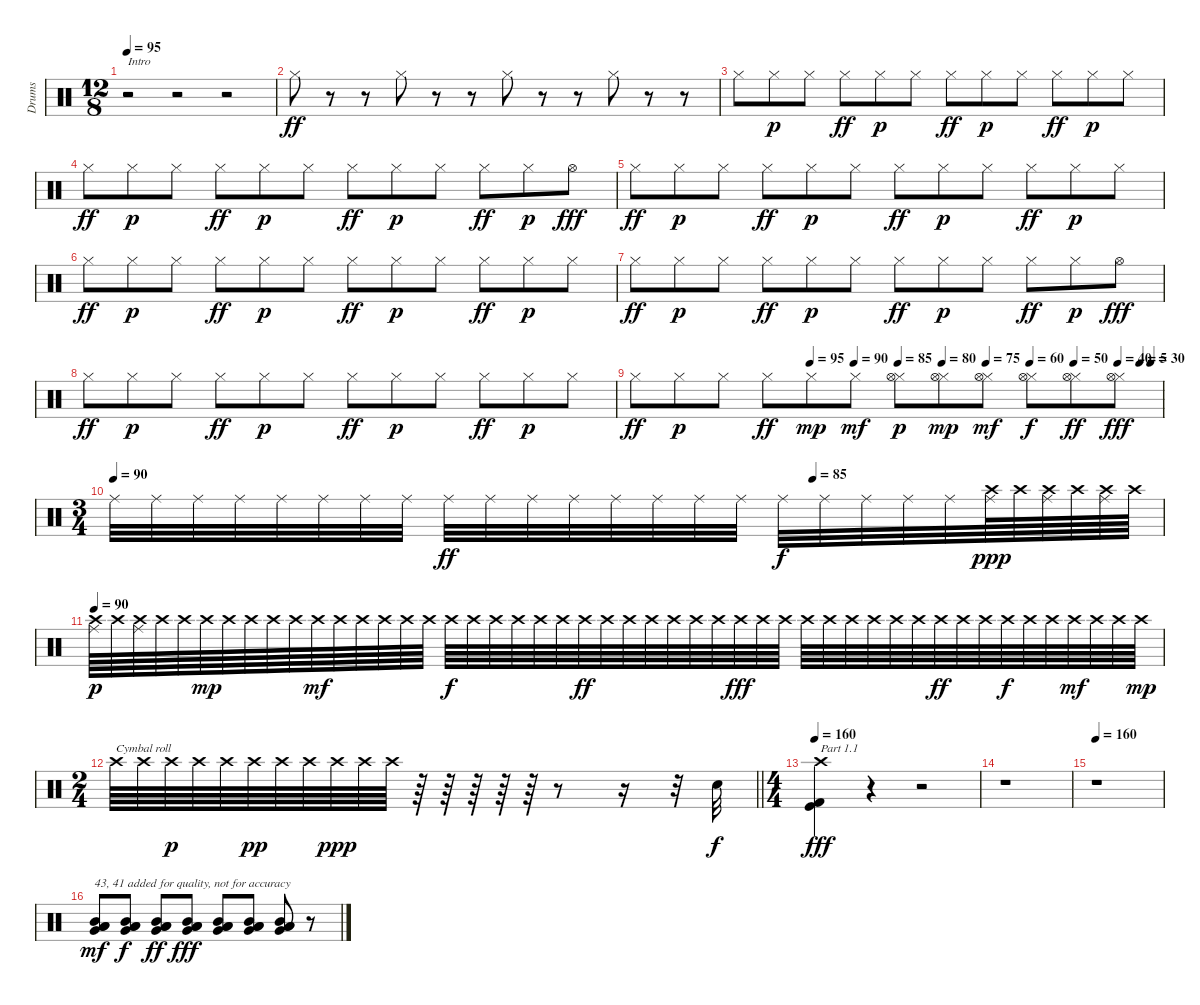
\track ("Drums" "Drums") {instrument percussion}
\staff {score}
\articulation defaults
\ts (12 8)
\tempo 95
\clef neutral
\ks c
r.2{txt "Intro" dy ff balance 4} r.2 r.2 |
"Hi-Hat (closed)".8 r.8 r.8 "Hi-Hat (closed)".8 r.8 r.8 "Hi-Hat (closed)".8 r.8 r.8 "Hi-Hat (closed)".8 r.8 r.8 |
"Hi-Hat (closed)".8 "Hi-Hat (closed)".8{dy p} "Hi-Hat (closed)".8 "Hi-Hat (closed)".8{dy ff} "Hi-Hat (closed)".8{dy p} "Hi-Hat (closed)".8 "Hi-Hat (closed)".8{dy ff} "Hi-Hat (closed)".8{dy p} "Hi-Hat (closed)".8 "Hi-Hat (closed)".8{dy ff} "Hi-Hat (closed)".8{dy p} "Hi-Hat (closed)".8 |
"Hi-Hat (closed)".8{dy ff} "Hi-Hat (closed)".8{dy p} "Hi-Hat (closed)".8 "Hi-Hat (closed)".8{dy ff} "Hi-Hat (closed)".8{dy p} "Hi-Hat (closed)".8 "Hi-Hat (closed)".8{dy ff} "Hi-Hat (closed)".8{dy p} "Hi-Hat (closed)".8 "Hi-Hat (closed)".8{dy ff} "Hi-Hat (closed)".8{dy p} "Hi-Hat (open)".8{dy fff} |
"Hi-Hat (closed)".8{dy ff} "Hi-Hat (closed)".8{dy p} "Hi-Hat (closed)".8 "Hi-Hat (closed)".8{dy ff} "Hi-Hat (closed)".8{dy p} "Hi-Hat (closed)".8 "Hi-Hat (closed)".8{dy ff} "Hi-Hat (closed)".8{dy p} "Hi-Hat (closed)".8 "Hi-Hat (closed)".8{dy ff} "Hi-Hat (closed)".8{dy p} "Hi-Hat (closed)".8 |
"Hi-Hat (closed)".8{dy ff} "Hi-Hat (closed)".8{dy p} "Hi-Hat (closed)".8 "Hi-Hat (closed)".8{dy ff} "Hi-Hat (closed)".8{dy p} "Hi-Hat (closed)".8 "Hi-Hat (closed)".8{dy ff} "Hi-Hat (closed)".8{dy p} "Hi-Hat (closed)".8 "Hi-Hat (closed)".8{dy ff} "Hi-Hat (closed)".8{dy p} "Hi-Hat (closed)".8 |
"Hi-Hat (closed)".8{dy ff} "Hi-Hat (closed)".8{dy p} "Hi-Hat (closed)".8 "Hi-Hat (closed)".8{dy ff} "Hi-Hat (closed)".8{dy p} "Hi-Hat (closed)".8 "Hi-Hat (closed)".8{dy ff} "Hi-Hat (closed)".8{dy p} "Hi-Hat (closed)".8 "Hi-Hat (closed)".8{dy ff} "Hi-Hat (closed)".8{dy p} "Hi-Hat (open)".8{dy fff} |
"Hi-Hat (closed)".8{dy ff} "Hi-Hat (closed)".8{dy p} "Hi-Hat (closed)".8 "Hi-Hat (closed)".8{dy ff} "Hi-Hat (closed)".8{dy p} "Hi-Hat (closed)".8 "Hi-Hat (closed)".8{dy ff} "Hi-Hat (closed)".8{dy p} "Hi-Hat (closed)".8 "Hi-Hat (closed)".8{dy ff} "Hi-Hat (closed)".8{dy p} "Hi-Hat (closed)".8 |
\tempo (5 0.9583333333333334)
\tempo (30 0.9791666666666666)
\tempo (95 0.3333333333333333)
\tempo (90 0.4166666666666667)
\tempo (85 0.5)
\tempo (80 0.5833333333333334)
\tempo (75 0.6666666666666666)
\tempo (60 0.75)
\tempo (50 0.8333333333333334)
\tempo (40 0.9166666666666666)
"Hi-Hat (closed)".8{dy ff} "Hi-Hat (closed)".8{dy p} "Hi-Hat (closed)".8 "Hi-Hat (closed)".8{dy ff} "Hi-Hat (closed)".8{dy mp} "Hi-Hat (closed)".8{dy mf} ("Hi-Hat (closed)" "Hi-Hat (open)").8{dy p} ("Hi-Hat (closed)" "Hi-Hat (open)").8{dy mp} ("Hi-Hat (closed)" "Hi-Hat (open)").8{dy mf} ("Hi-Hat (closed)" "Hi-Hat (open)").8{dy f} ("Hi-Hat (closed)" "Hi-Hat (open)").8{dy ff} ("Hi-Hat (closed)" "Hi-Hat (open)").8{dy fff} |
\ts (3 4)
\tempo 90
\tempo (85 0.6666666666666666)
"Ride (middle)".32{balance 6} "Ride (middle)".32 "Ride (middle)".32 "Ride (middle)".32 "Ride (middle)".32 "Ride (middle)".32 "Ride (middle)".32 "Ride (middle)".32 "Ride (middle)".32{dy ff} "Ride (middle)".32 "Ride (middle)".32 "Ride (middle)".32 "Ride (middle)".32 "Ride (middle)".32 "Ride (middle)".32 "Ride (middle)".32 "Ride (middle)".32{dy f} "Ride (middle)".32 "Ride (middle)".32 "Ride (middle)".32 "Ride (middle)".32 ("Crash high (hit)" "Ride (middle)").64{dy ppp} "Crash high (hit)".64 ("Crash high (hit)" "Ride (middle)").64 "Crash high (hit)".64 ("Crash high (hit)" "Ride (middle)").64 "Crash high (hit)".64 |
\tempo 90
("Ride (middle)" "Crash high (hit)").64{dy p} "Crash high (hit)".64 ("Ride (middle)" "Crash high (hit)").64 "Crash high (hit)".64 "Crash high (hit)".64 "Crash high (hit)".64{dy mp} "Crash high (hit)".64 "Crash high (hit)".64 "Crash high (hit)".64 "Crash high (hit)".64 "Crash high (hit)".64{dy mf} "Crash high (hit)".64 "Crash high (hit)".64 "Crash high (hit)".64 "Crash high (hit)".64 "Crash high (hit)".64 "Crash high (hit)".64{dy f} "Crash high (hit)".64 "Crash high (hit)".64 "Crash high (hit)".64 "Crash high (hit)".64 "Crash high (hit)".64 "Crash high (hit)".64{dy ff} "Crash high (hit)".64 "Crash high (hit)".64 "Crash high (hit)".64 "Crash high (hit)".64 "Crash high (hit)".64 "Crash high (hit)".64 "Crash high (hit)".64{dy fff} "Crash high (hit)".64 "Crash high (hit)".64 "Crash high (hit)".64 "Crash high (hit)".64 "Crash high (hit)".64 "Crash high (hit)".64 "Crash high (hit)".64 "Crash high (hit)".64 "Crash high (hit)".64{dy ff} "Crash high (hit)".64 "Crash high (hit)".64 "Crash high (hit)".64{dy f} "Crash high (hit)".64 "Crash high (hit)".64 "Crash high (hit)".64{dy mf} "Crash high (hit)".64 "Crash high (hit)".64 "Crash high (hit)".64{dy mp} |
\ts (2 4)
\barLineRight lightlight "Crash high (hit)".64{txt "Cymbal roll"} "Crash high (hit)".64 "Crash high (hit)".64{dy p} "Crash high (hit)".64 "Crash high (hit)".64 "Crash high (hit)".64{dy pp} "Crash high (hit)".64 "Crash high (hit)".64 "Crash high (hit)".64{dy ppp} "Crash high (hit)".64 "Crash high (hit)".64
r.64 r.64 r.64 r.64 r.64 r.8 r.16 r.32 "Electric Snare (hit)".32{dy f balance 8} |
\ts (4 4)
\tempo 160
("Kick (hit)" "Kick (hit) 2" "Crash high (hit)").4{txt "Part 1.1" dy fff volume 16} r.4 r.2 |
r.1 |
\tempo 160
r.1 |
("Mid Tom (hit)" "Low Tom (hit)" "Very Low Tom (hit)" "Low Floor Tom (hit)").8{txt "43, 41 added for quality, not for accuracy" dy mf volume 14} ("Mid Tom (hit)" "Low Tom (hit)" "Very Low Tom (hit)" "Low Floor Tom (hit)").8{dy f} ("Mid Tom (hit)" "Low Tom (hit)" "Very Low Tom (hit)" "Low Floor Tom (hit)").8{dy ff} ("Mid Tom (hit)" "Low Tom (hit)" "Very Low Tom (hit)" "Low Floor Tom (hit)").8{dy fff} ("Mid Tom (hit)" "Low Tom (hit)" "Very Low Tom (hit)" "Low Floor Tom (hit)").8 ("Mid Tom (hit)" "Low Tom (hit)" "Very Low Tom (hit)" "Low Floor Tom (hit)").8 ("Mid Tom (hit)" "Low Tom (hit)" "Very Low Tom (hit)" "Low Floor Tom (hit)").8 r.8
